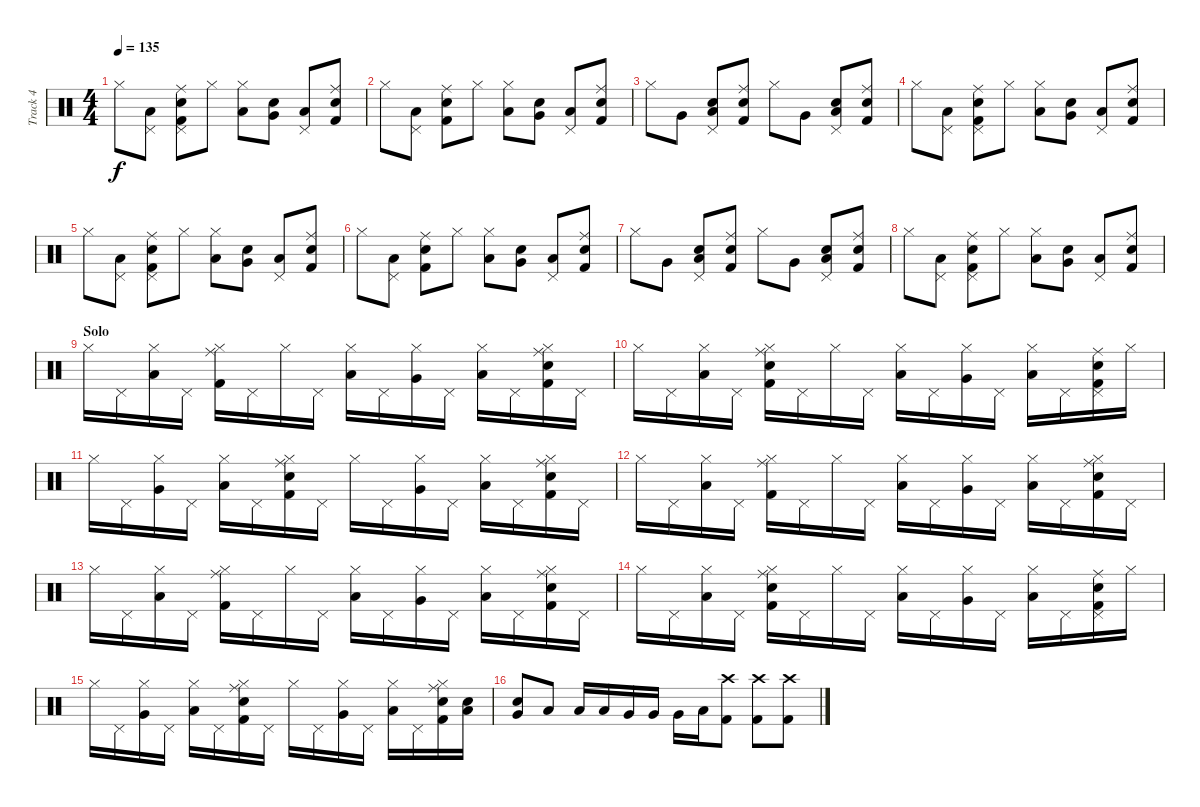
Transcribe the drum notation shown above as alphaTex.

\track ("Track 4" "Track 4") {instrument percussion}
\staff {score}
\articulation defaults
\ts (4 4)
\tempo 135
\clef neutral
\ks c "Hi-Hat (closed)".8{dy f}
("Low Floor Tom (hit)" "Pedal Hi-Hat (hit)").8 ("Kick (hit) 2" "Ride (middle)" "Pedal Hi-Hat (hit)" "Electric Snare (hit)").8 "Hi-Hat (closed)".8 ("Low Floor Tom (hit)" "Hi-Hat (closed)").8 ("Very Low Tom (hit)" "Electric Snare (hit)").8 ("Low Tom (hit)" "Pedal Hi-Hat (hit)").8 ("Ride (middle)" "Electric Snare (hit)" "Kick (hit) 2").8 |
"Hi-Hat (closed)".8 ("Low Floor Tom (hit)" "Pedal Hi-Hat (hit)").8 ("Kick (hit) 2" "Ride (middle)" "Electric Snare (hit)").8 "Hi-Hat (closed)".8 ("Low Floor Tom (hit)" "Hi-Hat (closed)").8 ("Very Low Tom (hit)" "Electric Snare (hit)").8 ("Low Tom (hit)" "Pedal Hi-Hat (hit)").8 ("Ride (middle)" "Electric Snare (hit)" "Kick (hit) 2").8 |
"Hi-Hat (closed)".8 "Very Low Tom (hit)".8 ("Low Tom (hit)" "Pedal Hi-Hat (hit)" "Electric Snare (hit)").8 ("Electric Snare (hit)" "Kick (hit) 2" "Ride (middle)").8 "Hi-Hat (closed)".8 "Very Low Tom (hit)".8 ("Low Tom (hit)" "Pedal Hi-Hat (hit)" "Electric Snare (hit)").8 ("Electric Snare (hit)" "Kick (hit) 2" "Ride (middle)").8 |
"Hi-Hat (closed)".8 ("Low Floor Tom (hit)" "Pedal Hi-Hat (hit)").8 ("Kick (hit) 2" "Ride (middle)" "Pedal Hi-Hat (hit)" "Electric Snare (hit)").8 "Hi-Hat (closed)".8 ("Low Floor Tom (hit)" "Hi-Hat (closed)").8 ("Very Low Tom (hit)" "Electric Snare (hit)").8 ("Low Tom (hit)" "Pedal Hi-Hat (hit)").8 ("Ride (middle)" "Electric Snare (hit)" "Kick (hit) 2").8 |
"Hi-Hat (closed)".8 ("Low Floor Tom (hit)" "Pedal Hi-Hat (hit)").8 ("Kick (hit) 2" "Ride (middle)" "Pedal Hi-Hat (hit)" "Electric Snare (hit)").8 "Hi-Hat (closed)".8 ("Low Floor Tom (hit)" "Hi-Hat (closed)").8 ("Very Low Tom (hit)" "Electric Snare (hit)").8 ("Low Tom (hit)" "Pedal Hi-Hat (hit)").8 ("Ride (middle)" "Electric Snare (hit)" "Kick (hit) 2").8 |
"Hi-Hat (closed)".8 ("Low Floor Tom (hit)" "Pedal Hi-Hat (hit)").8 ("Kick (hit) 2" "Ride (middle)" "Electric Snare (hit)").8 "Hi-Hat (closed)".8 ("Low Floor Tom (hit)" "Hi-Hat (closed)").8 ("Very Low Tom (hit)" "Electric Snare (hit)").8 ("Low Tom (hit)" "Pedal Hi-Hat (hit)").8 ("Ride (middle)" "Electric Snare (hit)" "Kick (hit) 2").8 |
"Hi-Hat (closed)".8 "Very Low Tom (hit)".8 ("Low Tom (hit)" "Pedal Hi-Hat (hit)" "Electric Snare (hit)").8 ("Electric Snare (hit)" "Kick (hit) 2" "Ride (middle)").8 "Hi-Hat (closed)".8 "Very Low Tom (hit)".8 ("Low Tom (hit)" "Pedal Hi-Hat (hit)" "Electric Snare (hit)").8 ("Electric Snare (hit)" "Kick (hit) 2" "Ride (middle)").8 |
"Hi-Hat (closed)".8 ("Low Floor Tom (hit)" "Pedal Hi-Hat (hit)").8 ("Kick (hit) 2" "Ride (middle)" "Pedal Hi-Hat (hit)" "Electric Snare (hit)").8 "Hi-Hat (closed)".8 ("Low Floor Tom (hit)" "Hi-Hat (closed)").8 ("Very Low Tom (hit)" "Electric Snare (hit)").8 ("Low Tom (hit)" "Pedal Hi-Hat (hit)").8 ("Ride (middle)" "Electric Snare (hit)" "Kick (hit) 2").8 |
\section ("" "Solo")
"Hi-Hat (closed)".16 "Pedal Hi-Hat (hit)".16 ("Low Floor Tom (hit)" "Hi-Hat (closed)").16 "Pedal Hi-Hat (hit)".16 ("Kick (hit) 2" "Ride (middle)" "Hi-Hat (closed)").16 "Pedal Hi-Hat (hit)".16 "Hi-Hat (closed)".16 "Pedal Hi-Hat (hit)".16 ("Low Floor Tom (hit)" "Hi-Hat (closed)").16 "Pedal Hi-Hat (hit)".16 ("Very Low Tom (hit)" "Hi-Hat (closed)").16 "Pedal Hi-Hat (hit)".16 ("Low Tom (hit)" "Hi-Hat (closed)").16 "Pedal Hi-Hat (hit)".16 ("Ride (middle)" "Electric Snare (hit)" "Kick (hit) 2" "Hi-Hat (closed)").16 "Pedal Hi-Hat (hit)".16 |
"Hi-Hat (closed)".16 "Pedal Hi-Hat (hit)".16 ("Low Floor Tom (hit)" "Hi-Hat (closed)").16 "Pedal Hi-Hat (hit)".16 ("Kick (hit) 2" "Ride (middle)" "Electric Snare (hit)" "Hi-Hat (closed)").16 "Pedal Hi-Hat (hit)".16 "Hi-Hat (closed)".16 "Pedal Hi-Hat (hit)".16 ("Low Floor Tom (hit)" "Hi-Hat (closed)").16 "Pedal Hi-Hat (hit)".16 ("Very Low Tom (hit)" "Hi-Hat (closed)").16 "Pedal Hi-Hat (hit)".16 ("Low Tom (hit)" "Hi-Hat (closed)").16 "Pedal Hi-Hat (hit)".16 ("Ride (middle)" "Electric Snare (hit)" "Kick (hit) 2" "Pedal Hi-Hat (hit)").16 "Hi-Hat (closed)".16 |
"Hi-Hat (closed)".16 "Pedal Hi-Hat (hit)".16 ("Very Low Tom (hit)" "Hi-Hat (closed)").16 "Pedal Hi-Hat (hit)".16 ("Low Tom (hit)" "Hi-Hat (closed)").16 "Pedal Hi-Hat (hit)".16 ("Electric Snare (hit)" "Kick (hit) 2" "Ride (middle)" "Hi-Hat (closed)").16 "Pedal Hi-Hat (hit)".16 "Hi-Hat (closed)".16 "Pedal Hi-Hat (hit)".16 ("Very Low Tom (hit)" "Hi-Hat (closed)").16 "Pedal Hi-Hat (hit)".16 ("Low Tom (hit)" "Hi-Hat (closed)").16 "Pedal Hi-Hat (hit)".16 ("Electric Snare (hit)" "Kick (hit) 2" "Ride (middle)" "Hi-Hat (closed)").16 "Pedal Hi-Hat (hit)".16 |
"Hi-Hat (closed)".16 "Pedal Hi-Hat (hit)".16 ("Low Floor Tom (hit)" "Hi-Hat (closed)").16 "Pedal Hi-Hat (hit)".16 ("Kick (hit) 2" "Ride (middle)" "Hi-Hat (closed)").16 "Pedal Hi-Hat (hit)".16 "Hi-Hat (closed)".16 "Pedal Hi-Hat (hit)".16 ("Low Floor Tom (hit)" "Hi-Hat (closed)").16 "Pedal Hi-Hat (hit)".16 ("Very Low Tom (hit)" "Hi-Hat (closed)").16 "Pedal Hi-Hat (hit)".16 ("Low Tom (hit)" "Hi-Hat (closed)").16 "Pedal Hi-Hat (hit)".16 ("Ride (middle)" "Electric Snare (hit)" "Kick (hit) 2" "Hi-Hat (closed)").16 "Pedal Hi-Hat (hit)".16 |
"Hi-Hat (closed)".16 "Pedal Hi-Hat (hit)".16 ("Low Floor Tom (hit)" "Hi-Hat (closed)").16 "Pedal Hi-Hat (hit)".16 ("Kick (hit) 2" "Ride (middle)" "Hi-Hat (closed)").16 "Pedal Hi-Hat (hit)".16 "Hi-Hat (closed)".16 "Pedal Hi-Hat (hit)".16 ("Low Floor Tom (hit)" "Hi-Hat (closed)").16 "Pedal Hi-Hat (hit)".16 ("Very Low Tom (hit)" "Hi-Hat (closed)").16 "Pedal Hi-Hat (hit)".16 ("Low Tom (hit)" "Hi-Hat (closed)").16 "Pedal Hi-Hat (hit)".16 ("Ride (middle)" "Electric Snare (hit)" "Kick (hit) 2" "Hi-Hat (closed)").16 "Pedal Hi-Hat (hit)".16 |
"Hi-Hat (closed)".16 "Pedal Hi-Hat (hit)".16 ("Low Floor Tom (hit)" "Hi-Hat (closed)").16 "Pedal Hi-Hat (hit)".16 ("Kick (hit) 2" "Ride (middle)" "Electric Snare (hit)" "Hi-Hat (closed)").16 "Pedal Hi-Hat (hit)".16 "Hi-Hat (closed)".16 "Pedal Hi-Hat (hit)".16 ("Low Floor Tom (hit)" "Hi-Hat (closed)").16 "Pedal Hi-Hat (hit)".16 ("Very Low Tom (hit)" "Hi-Hat (closed)").16 "Pedal Hi-Hat (hit)".16 ("Low Tom (hit)" "Hi-Hat (closed)").16 "Pedal Hi-Hat (hit)".16 ("Ride (middle)" "Electric Snare (hit)" "Kick (hit) 2" "Pedal Hi-Hat (hit)").16 "Hi-Hat (closed)".16 |
"Hi-Hat (closed)".16 "Pedal Hi-Hat (hit)".16 ("Very Low Tom (hit)" "Hi-Hat (closed)").16 "Pedal Hi-Hat (hit)".16 ("Low Tom (hit)" "Hi-Hat (closed)").16 "Pedal Hi-Hat (hit)".16 ("Electric Snare (hit)" "Kick (hit) 2" "Ride (middle)" "Hi-Hat (closed)").16 "Pedal Hi-Hat (hit)".16 "Hi-Hat (closed)".16 "Pedal Hi-Hat (hit)".16 ("Very Low Tom (hit)" "Hi-Hat (closed)").16 "Pedal Hi-Hat (hit)".16 ("Low Tom (hit)" "Hi-Hat (closed)").16 "Pedal Hi-Hat (hit)".16 ("Electric Snare (hit)" "Kick (hit) 2" "Ride (middle)" "Hi-Hat (closed)").16 ("Low Tom (hit)" "Electric Snare (hit)").16 |
("Very Low Tom (hit)" "Snare (hit) 2").8 "Low Tom (hit)".8 "Low Tom (hit)".16 "Low Tom (hit)".16 "Very Low Tom (hit)".16 "Very Low Tom (hit)".16 "Very Low Tom (hit)".16 "Low Floor Tom (hit)".16 ("Kick (hit) 2" "Crash high (hit)").8 ("Kick (hit) 2" "Crash high (hit)").8 ("Kick (hit) 2" "Crash high (hit)").8
